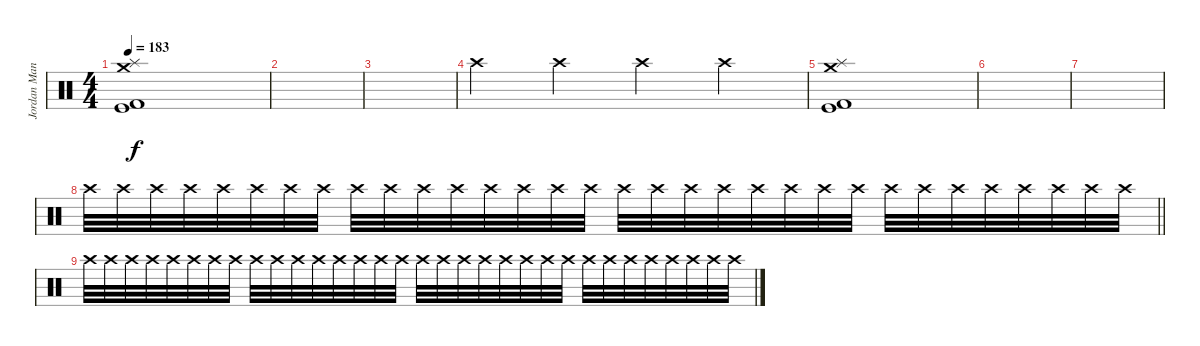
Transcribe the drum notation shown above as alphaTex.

\track ("Jordan Mancino" "Jordan Man") {instrument percussion}
\staff {score}
\articulation defaults
\ts (4 4)
\tempo 183
\clef neutral
\ks c
("Splash (hit)" "Crash medium (hit)" "Kick (hit)" "Kick (hit) 2").1{dy f} |
|
|
"Crash high (hit)".4{volume 13} "Crash high (hit)".4 "Crash high (hit)".4 "Crash high (hit)".4 |
("Splash (hit)" "Crash medium (hit)" "Kick (hit)" "Kick (hit) 2").1 |
|
|
\barLineRight lightlight "Crash high (hit)".32{volume 13} "Crash high (hit)".32 "Crash high (hit)".32 "Crash high (hit)".32 "Crash high (hit)".32 "Crash high (hit)".32 "Crash high (hit)".32 "Crash high (hit)".32 "Crash high (hit)".32 "Crash high (hit)".32 "Crash high (hit)".32 "Crash high (hit)".32 "Crash high (hit)".32 "Crash high (hit)".32 "Crash high (hit)".32 "Crash high (hit)".32 "Crash high (hit)".32 "Crash high (hit)".32 "Crash high (hit)".32 "Crash high (hit)".32 "Crash high (hit)".32 "Crash high (hit)".32 "Crash high (hit)".32 "Crash high (hit)".32 "Crash high (hit)".32 "Crash high (hit)".32 "Crash high (hit)".32 "Crash high (hit)".32 "Crash high (hit)".32 "Crash high (hit)".32 "Crash high (hit)".32 "Crash high (hit)".32
|
"Crash high (hit)".32{volume 0} "Crash high (hit)".32 "Crash high (hit)".32 "Crash high (hit)".32 "Crash high (hit)".32 "Crash high (hit)".32 "Crash high (hit)".32 "Crash high (hit)".32 "Crash high (hit)".32 "Crash high (hit)".32 "Crash high (hit)".32 "Crash high (hit)".32 "Crash high (hit)".32 "Crash high (hit)".32 "Crash high (hit)".32 "Crash high (hit)".32 "Crash high (hit)".32 "Crash high (hit)".32 "Crash high (hit)".32 "Crash high (hit)".32 "Crash high (hit)".32 "Crash high (hit)".32 "Crash high (hit)".32 "Crash high (hit)".32 "Crash high (hit)".32 "Crash high (hit)".32 "Crash high (hit)".32 "Crash high (hit)".32 "Crash high (hit)".32 "Crash high (hit)".32 "Crash high (hit)".32 "Crash high (hit)".32
